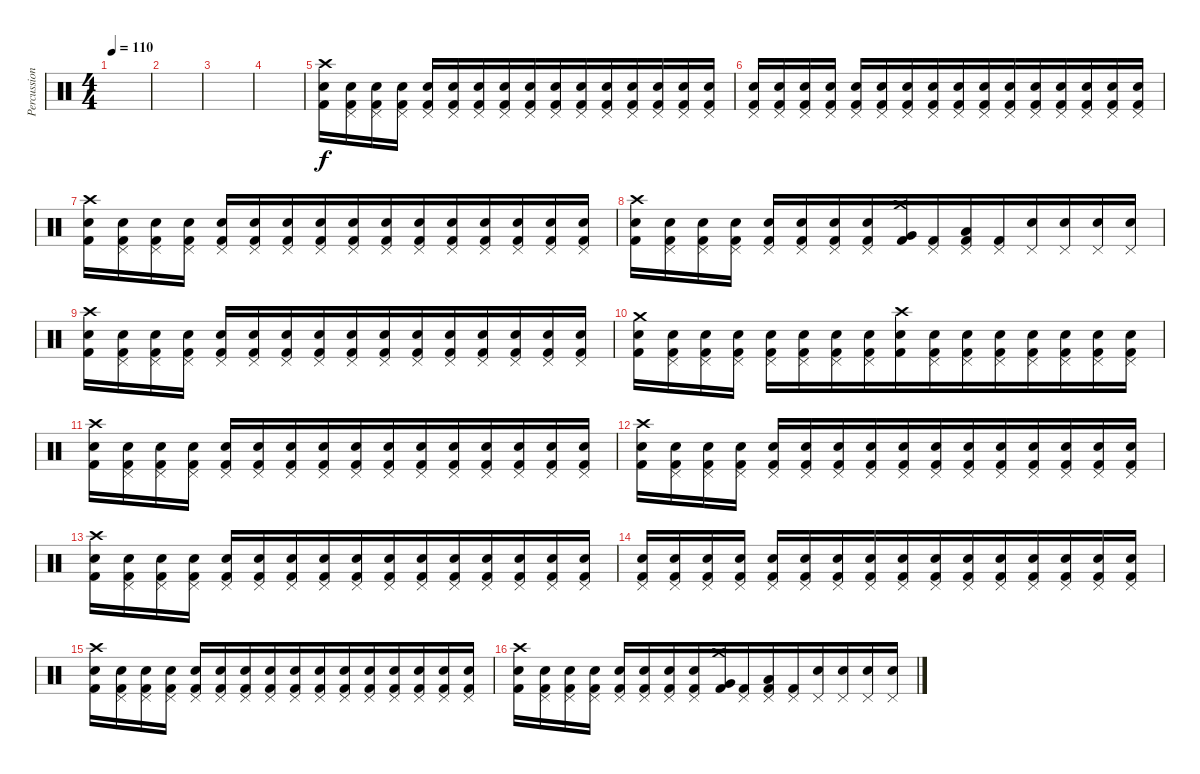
\track ("Percussion" "Percussion") {instrument percussion bank 36}
\staff {score}
\articulation defaults
\ts (4 4)
\tempo 110
\clef neutral
\ks c
|
|
|
|
("Crash high (hit)" "Electric Snare (hit)" "Kick (hit) 2").16 ("Pedal Hi-Hat (hit)" "Electric Snare (hit)" "Kick (hit) 2").16 ("Pedal Hi-Hat (hit)" "Electric Snare (hit)" "Kick (hit) 2").16 ("Pedal Hi-Hat (hit)" "Electric Snare (hit)" "Kick (hit) 2").16 ("Pedal Hi-Hat (hit)" "Electric Snare (hit)" "Kick (hit) 2").16 ("Pedal Hi-Hat (hit)" "Electric Snare (hit)" "Kick (hit) 2").16 ("Pedal Hi-Hat (hit)" "Electric Snare (hit)" "Kick (hit) 2").16 ("Pedal Hi-Hat (hit)" "Electric Snare (hit)" "Kick (hit) 2").16{beam merge} ("Pedal Hi-Hat (hit)" "Electric Snare (hit)" "Kick (hit) 2").16{beam merge} ("Pedal Hi-Hat (hit)" "Electric Snare (hit)" "Kick (hit) 2").16{beam merge} ("Pedal Hi-Hat (hit)" "Electric Snare (hit)" "Kick (hit) 2").16 ("Pedal Hi-Hat (hit)" "Electric Snare (hit)" "Kick (hit) 2").16{beam merge} ("Pedal Hi-Hat (hit)" "Electric Snare (hit)" "Kick (hit) 2").16{beam merge} ("Pedal Hi-Hat (hit)" "Electric Snare (hit)" "Kick (hit) 2").16{beam merge} ("Pedal Hi-Hat (hit)" "Electric Snare (hit)" "Kick (hit) 2").16 ("Pedal Hi-Hat (hit)" "Electric Snare (hit)" "Kick (hit) 2").16 |
("Pedal Hi-Hat (hit)" "Electric Snare (hit)" "Kick (hit) 2").16 ("Pedal Hi-Hat (hit)" "Electric Snare (hit)" "Kick (hit) 2").16 ("Pedal Hi-Hat (hit)" "Electric Snare (hit)" "Kick (hit) 2").16 ("Pedal Hi-Hat (hit)" "Electric Snare (hit)" "Kick (hit) 2").16 ("Pedal Hi-Hat (hit)" "Electric Snare (hit)" "Kick (hit) 2").16 ("Pedal Hi-Hat (hit)" "Electric Snare (hit)" "Kick (hit) 2").16 ("Pedal Hi-Hat (hit)" "Electric Snare (hit)" "Kick (hit) 2").16 ("Pedal Hi-Hat (hit)" "Electric Snare (hit)" "Kick (hit) 2").16{beam merge} ("Pedal Hi-Hat (hit)" "Electric Snare (hit)" "Kick (hit) 2").16{beam merge} ("Pedal Hi-Hat (hit)" "Electric Snare (hit)" "Kick (hit) 2").16{beam merge} ("Pedal Hi-Hat (hit)" "Electric Snare (hit)" "Kick (hit) 2").16 ("Pedal Hi-Hat (hit)" "Electric Snare (hit)" "Kick (hit) 2").16{beam merge} ("Pedal Hi-Hat (hit)" "Electric Snare (hit)" "Kick (hit) 2").16{beam merge} ("Pedal Hi-Hat (hit)" "Electric Snare (hit)" "Kick (hit) 2").16{beam merge} ("Pedal Hi-Hat (hit)" "Electric Snare (hit)" "Kick (hit) 2").16 ("Pedal Hi-Hat (hit)" "Electric Snare (hit)" "Kick (hit) 2").16 |
("Crash high (hit)" "Electric Snare (hit)" "Kick (hit) 2").16 ("Pedal Hi-Hat (hit)" "Electric Snare (hit)" "Kick (hit) 2").16 ("Pedal Hi-Hat (hit)" "Electric Snare (hit)" "Kick (hit) 2").16 ("Pedal Hi-Hat (hit)" "Electric Snare (hit)" "Kick (hit) 2").16 ("Pedal Hi-Hat (hit)" "Electric Snare (hit)" "Kick (hit) 2").16 ("Pedal Hi-Hat (hit)" "Electric Snare (hit)" "Kick (hit) 2").16 ("Pedal Hi-Hat (hit)" "Electric Snare (hit)" "Kick (hit) 2").16 ("Pedal Hi-Hat (hit)" "Electric Snare (hit)" "Kick (hit) 2").16{beam merge} ("Pedal Hi-Hat (hit)" "Electric Snare (hit)" "Kick (hit) 2").16{beam merge} ("Pedal Hi-Hat (hit)" "Electric Snare (hit)" "Kick (hit) 2").16{beam merge} ("Pedal Hi-Hat (hit)" "Electric Snare (hit)" "Kick (hit) 2").16 ("Pedal Hi-Hat (hit)" "Electric Snare (hit)" "Kick (hit) 2").16{beam merge} ("Pedal Hi-Hat (hit)" "Electric Snare (hit)" "Kick (hit) 2").16{beam merge} ("Pedal Hi-Hat (hit)" "Electric Snare (hit)" "Kick (hit) 2").16{beam merge} ("Pedal Hi-Hat (hit)" "Electric Snare (hit)" "Kick (hit) 2").16 ("Pedal Hi-Hat (hit)" "Electric Snare (hit)" "Kick (hit) 2").16 |
("Crash high (hit)" "Electric Snare (hit)" "Kick (hit) 2").16 ("Pedal Hi-Hat (hit)" "Electric Snare (hit)" "Kick (hit) 2").16 ("Pedal Hi-Hat (hit)" "Electric Snare (hit)" "Kick (hit) 2").16 ("Pedal Hi-Hat (hit)" "Electric Snare (hit)" "Kick (hit) 2").16 ("Pedal Hi-Hat (hit)" "Electric Snare (hit)" "Kick (hit) 2").16 ("Pedal Hi-Hat (hit)" "Electric Snare (hit)" "Kick (hit) 2").16 ("Pedal Hi-Hat (hit)" "Electric Snare (hit)" "Kick (hit) 2").16 ("Pedal Hi-Hat (hit)" "Electric Snare (hit)" "Kick (hit) 2").16{beam merge} ("Crash medium (hit)" "Very Low Tom (hit)" "Kick (hit) 2").16{beam merge} ("Pedal Hi-Hat (hit)" "Kick (hit) 2").16{beam merge} ("Pedal Hi-Hat (hit)" "Low Tom (hit)" "Kick (hit) 2").16 ("Pedal Hi-Hat (hit)" "Kick (hit) 2").16{beam merge} ("Pedal Hi-Hat (hit)" "Electric Snare (hit)").16{beam merge} ("Pedal Hi-Hat (hit)" "Electric Snare (hit)").16{beam merge} ("Pedal Hi-Hat (hit)" "Electric Snare (hit)").16 ("Pedal Hi-Hat (hit)" "Electric Snare (hit)").16 |
("Crash high (hit)" "Electric Snare (hit)" "Kick (hit) 2").16 ("Pedal Hi-Hat (hit)" "Electric Snare (hit)" "Kick (hit) 2").16 ("Pedal Hi-Hat (hit)" "Electric Snare (hit)" "Kick (hit) 2").16 ("Pedal Hi-Hat (hit)" "Electric Snare (hit)" "Kick (hit) 2").16 ("Pedal Hi-Hat (hit)" "Electric Snare (hit)" "Kick (hit) 2").16 ("Pedal Hi-Hat (hit)" "Electric Snare (hit)" "Kick (hit) 2").16 ("Pedal Hi-Hat (hit)" "Electric Snare (hit)" "Kick (hit) 2").16 ("Pedal Hi-Hat (hit)" "Electric Snare (hit)" "Kick (hit) 2").16{beam merge} ("Pedal Hi-Hat (hit)" "Electric Snare (hit)" "Kick (hit) 2").16{beam merge} ("Pedal Hi-Hat (hit)" "Electric Snare (hit)" "Kick (hit) 2").16{beam merge} ("Pedal Hi-Hat (hit)" "Electric Snare (hit)" "Kick (hit) 2").16 ("Pedal Hi-Hat (hit)" "Electric Snare (hit)" "Kick (hit) 2").16{beam merge} ("Pedal Hi-Hat (hit)" "Electric Snare (hit)" "Kick (hit) 2").16{beam merge} ("Pedal Hi-Hat (hit)" "Electric Snare (hit)" "Kick (hit) 2").16{beam merge} ("Pedal Hi-Hat (hit)" "Electric Snare (hit)" "Kick (hit) 2").16 ("Pedal Hi-Hat (hit)" "Electric Snare (hit)" "Kick (hit) 2").16 |
("Crash medium (hit)" "Electric Snare (hit)" "Kick (hit) 2").16 ("Pedal Hi-Hat (hit)" "Electric Snare (hit)" "Kick (hit) 2").16 ("Pedal Hi-Hat (hit)" "Electric Snare (hit)" "Kick (hit) 2").16 ("Pedal Hi-Hat (hit)" "Electric Snare (hit)" "Kick (hit) 2").16 ("Pedal Hi-Hat (hit)" "Electric Snare (hit)" "Kick (hit) 2").16 ("Pedal Hi-Hat (hit)" "Electric Snare (hit)" "Kick (hit) 2").16 ("Pedal Hi-Hat (hit)" "Electric Snare (hit)" "Kick (hit) 2").16 ("Pedal Hi-Hat (hit)" "Electric Snare (hit)" "Kick (hit) 2").16{beam merge} ("Crash high (hit)" "Electric Snare (hit)" "Kick (hit) 2").16{beam merge} ("Pedal Hi-Hat (hit)" "Electric Snare (hit)" "Kick (hit) 2").16{beam merge} ("Pedal Hi-Hat (hit)" "Electric Snare (hit)" "Kick (hit) 2").16 ("Pedal Hi-Hat (hit)" "Electric Snare (hit)" "Kick (hit) 2").16{beam merge} ("Pedal Hi-Hat (hit)" "Electric Snare (hit)" "Kick (hit) 2").16{beam merge} ("Pedal Hi-Hat (hit)" "Electric Snare (hit)" "Kick (hit) 2").16{beam merge} ("Pedal Hi-Hat (hit)" "Electric Snare (hit)" "Kick (hit) 2").16 ("Pedal Hi-Hat (hit)" "Electric Snare (hit)" "Kick (hit) 2").16 |
("Crash high (hit)" "Electric Snare (hit)" "Kick (hit) 2").16 ("Pedal Hi-Hat (hit)" "Electric Snare (hit)" "Kick (hit) 2").16 ("Pedal Hi-Hat (hit)" "Electric Snare (hit)" "Kick (hit) 2").16 ("Pedal Hi-Hat (hit)" "Electric Snare (hit)" "Kick (hit) 2").16 ("Pedal Hi-Hat (hit)" "Electric Snare (hit)" "Kick (hit) 2").16 ("Pedal Hi-Hat (hit)" "Electric Snare (hit)" "Kick (hit) 2").16 ("Pedal Hi-Hat (hit)" "Electric Snare (hit)" "Kick (hit) 2").16 ("Pedal Hi-Hat (hit)" "Electric Snare (hit)" "Kick (hit) 2").16{beam merge} ("Pedal Hi-Hat (hit)" "Electric Snare (hit)" "Kick (hit) 2").16{beam merge} ("Pedal Hi-Hat (hit)" "Electric Snare (hit)" "Kick (hit) 2").16{beam merge} ("Pedal Hi-Hat (hit)" "Electric Snare (hit)" "Kick (hit) 2").16 ("Pedal Hi-Hat (hit)" "Electric Snare (hit)" "Kick (hit) 2").16{beam merge} ("Pedal Hi-Hat (hit)" "Electric Snare (hit)" "Kick (hit) 2").16{beam merge} ("Pedal Hi-Hat (hit)" "Electric Snare (hit)" "Kick (hit) 2").16{beam merge} ("Pedal Hi-Hat (hit)" "Electric Snare (hit)" "Kick (hit) 2").16 ("Pedal Hi-Hat (hit)" "Electric Snare (hit)" "Kick (hit) 2").16 |
("Crash high (hit)" "Electric Snare (hit)" "Kick (hit) 2").16 ("Pedal Hi-Hat (hit)" "Electric Snare (hit)" "Kick (hit) 2").16 ("Pedal Hi-Hat (hit)" "Electric Snare (hit)" "Kick (hit) 2").16 ("Pedal Hi-Hat (hit)" "Electric Snare (hit)" "Kick (hit) 2").16 ("Pedal Hi-Hat (hit)" "Electric Snare (hit)" "Kick (hit) 2").16 ("Pedal Hi-Hat (hit)" "Electric Snare (hit)" "Kick (hit) 2").16 ("Pedal Hi-Hat (hit)" "Electric Snare (hit)" "Kick (hit) 2").16 ("Pedal Hi-Hat (hit)" "Electric Snare (hit)" "Kick (hit) 2").16{beam merge} ("Pedal Hi-Hat (hit)" "Electric Snare (hit)" "Kick (hit) 2").16{beam merge} ("Pedal Hi-Hat (hit)" "Electric Snare (hit)" "Kick (hit) 2").16{beam merge} ("Pedal Hi-Hat (hit)" "Electric Snare (hit)" "Kick (hit) 2").16 ("Pedal Hi-Hat (hit)" "Electric Snare (hit)" "Kick (hit) 2").16{beam merge} ("Pedal Hi-Hat (hit)" "Electric Snare (hit)" "Kick (hit) 2").16{beam merge} ("Pedal Hi-Hat (hit)" "Electric Snare (hit)" "Kick (hit) 2").16{beam merge} ("Pedal Hi-Hat (hit)" "Electric Snare (hit)" "Kick (hit) 2").16 ("Pedal Hi-Hat (hit)" "Electric Snare (hit)" "Kick (hit) 2").16 |
("Crash high (hit)" "Electric Snare (hit)" "Kick (hit) 2").16 ("Pedal Hi-Hat (hit)" "Electric Snare (hit)" "Kick (hit) 2").16 ("Pedal Hi-Hat (hit)" "Electric Snare (hit)" "Kick (hit) 2").16 ("Pedal Hi-Hat (hit)" "Electric Snare (hit)" "Kick (hit) 2").16 ("Pedal Hi-Hat (hit)" "Electric Snare (hit)" "Kick (hit) 2").16 ("Pedal Hi-Hat (hit)" "Electric Snare (hit)" "Kick (hit) 2").16 ("Pedal Hi-Hat (hit)" "Electric Snare (hit)" "Kick (hit) 2").16 ("Pedal Hi-Hat (hit)" "Electric Snare (hit)" "Kick (hit) 2").16{beam merge} ("Pedal Hi-Hat (hit)" "Electric Snare (hit)" "Kick (hit) 2").16{beam merge} ("Pedal Hi-Hat (hit)" "Electric Snare (hit)" "Kick (hit) 2").16{beam merge} ("Pedal Hi-Hat (hit)" "Electric Snare (hit)" "Kick (hit) 2").16 ("Pedal Hi-Hat (hit)" "Electric Snare (hit)" "Kick (hit) 2").16{beam merge} ("Pedal Hi-Hat (hit)" "Electric Snare (hit)" "Kick (hit) 2").16{beam merge} ("Pedal Hi-Hat (hit)" "Electric Snare (hit)" "Kick (hit) 2").16{beam merge} ("Pedal Hi-Hat (hit)" "Electric Snare (hit)" "Kick (hit) 2").16 ("Pedal Hi-Hat (hit)" "Electric Snare (hit)" "Kick (hit) 2").16 |
("Pedal Hi-Hat (hit)" "Electric Snare (hit)" "Kick (hit) 2").16 ("Pedal Hi-Hat (hit)" "Electric Snare (hit)" "Kick (hit) 2").16 ("Pedal Hi-Hat (hit)" "Electric Snare (hit)" "Kick (hit) 2").16 ("Pedal Hi-Hat (hit)" "Electric Snare (hit)" "Kick (hit) 2").16 ("Pedal Hi-Hat (hit)" "Electric Snare (hit)" "Kick (hit) 2").16 ("Pedal Hi-Hat (hit)" "Electric Snare (hit)" "Kick (hit) 2").16 ("Pedal Hi-Hat (hit)" "Electric Snare (hit)" "Kick (hit) 2").16 ("Pedal Hi-Hat (hit)" "Electric Snare (hit)" "Kick (hit) 2").16{beam merge} ("Pedal Hi-Hat (hit)" "Electric Snare (hit)" "Kick (hit) 2").16{beam merge} ("Pedal Hi-Hat (hit)" "Electric Snare (hit)" "Kick (hit) 2").16{beam merge} ("Pedal Hi-Hat (hit)" "Electric Snare (hit)" "Kick (hit) 2").16 ("Pedal Hi-Hat (hit)" "Electric Snare (hit)" "Kick (hit) 2").16{beam merge} ("Pedal Hi-Hat (hit)" "Electric Snare (hit)" "Kick (hit) 2").16{beam merge} ("Pedal Hi-Hat (hit)" "Electric Snare (hit)" "Kick (hit) 2").16{beam merge} ("Pedal Hi-Hat (hit)" "Electric Snare (hit)" "Kick (hit) 2").16 ("Pedal Hi-Hat (hit)" "Electric Snare (hit)" "Kick (hit) 2").16 |
("Crash high (hit)" "Electric Snare (hit)" "Kick (hit) 2").16 ("Pedal Hi-Hat (hit)" "Electric Snare (hit)" "Kick (hit) 2").16 ("Pedal Hi-Hat (hit)" "Electric Snare (hit)" "Kick (hit) 2").16 ("Pedal Hi-Hat (hit)" "Electric Snare (hit)" "Kick (hit) 2").16 ("Pedal Hi-Hat (hit)" "Electric Snare (hit)" "Kick (hit) 2").16 ("Pedal Hi-Hat (hit)" "Electric Snare (hit)" "Kick (hit) 2").16 ("Pedal Hi-Hat (hit)" "Electric Snare (hit)" "Kick (hit) 2").16 ("Pedal Hi-Hat (hit)" "Electric Snare (hit)" "Kick (hit) 2").16{beam merge} ("Pedal Hi-Hat (hit)" "Electric Snare (hit)" "Kick (hit) 2").16{beam merge} ("Pedal Hi-Hat (hit)" "Electric Snare (hit)" "Kick (hit) 2").16{beam merge} ("Pedal Hi-Hat (hit)" "Electric Snare (hit)" "Kick (hit) 2").16 ("Pedal Hi-Hat (hit)" "Electric Snare (hit)" "Kick (hit) 2").16{beam merge} ("Pedal Hi-Hat (hit)" "Electric Snare (hit)" "Kick (hit) 2").16{beam merge} ("Pedal Hi-Hat (hit)" "Electric Snare (hit)" "Kick (hit) 2").16{beam merge} ("Pedal Hi-Hat (hit)" "Electric Snare (hit)" "Kick (hit) 2").16 ("Pedal Hi-Hat (hit)" "Electric Snare (hit)" "Kick (hit) 2").16 |
("Crash high (hit)" "Electric Snare (hit)" "Kick (hit) 2").16 ("Pedal Hi-Hat (hit)" "Electric Snare (hit)" "Kick (hit) 2").16 ("Pedal Hi-Hat (hit)" "Electric Snare (hit)" "Kick (hit) 2").16 ("Pedal Hi-Hat (hit)" "Electric Snare (hit)" "Kick (hit) 2").16 ("Pedal Hi-Hat (hit)" "Electric Snare (hit)" "Kick (hit) 2").16 ("Pedal Hi-Hat (hit)" "Electric Snare (hit)" "Kick (hit) 2").16 ("Pedal Hi-Hat (hit)" "Electric Snare (hit)" "Kick (hit) 2").16 ("Pedal Hi-Hat (hit)" "Electric Snare (hit)" "Kick (hit) 2").16{beam merge} ("Crash medium (hit)" "Very Low Tom (hit)" "Kick (hit) 2").16{beam merge} ("Pedal Hi-Hat (hit)" "Kick (hit) 2").16{beam merge} ("Pedal Hi-Hat (hit)" "Low Tom (hit)" "Kick (hit) 2").16 ("Pedal Hi-Hat (hit)" "Kick (hit) 2").16{beam merge} ("Pedal Hi-Hat (hit)" "Electric Snare (hit)").16{beam merge} ("Pedal Hi-Hat (hit)" "Electric Snare (hit)").16{beam merge} ("Pedal Hi-Hat (hit)" "Electric Snare (hit)").16 ("Pedal Hi-Hat (hit)" "Electric Snare (hit)").16
